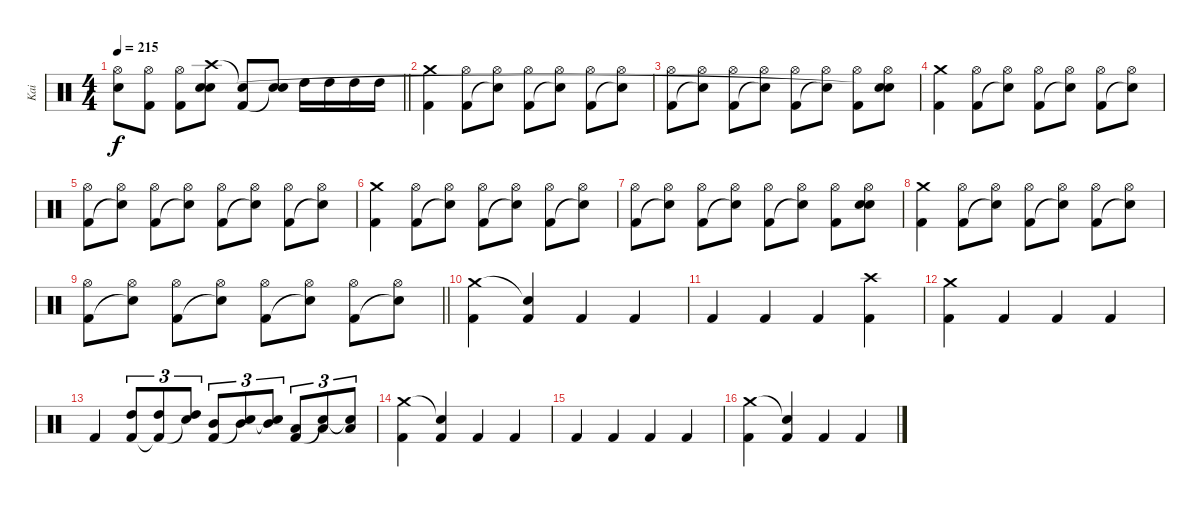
\track ("Kai" "Kai") {instrument percussion}
\staff {score}
\articulation defaults
\ts (4 4)
\tempo 215
\clef neutral
\barLineRight lightlight
\ks c
("Hi-Hat (open)" "Snare (hit) 2").8{dy f} ("Hi-Hat (open)" "Kick (hit) 2").8 ("Hi-Hat (open)" "Kick (hit) 2").8 ("Crash high (hit)" "Snare (hit) 2" "Snare (hit)"{t}).8 ("Snare (hit)"{t} "Kick (hit) 2").8 ("Snare (hit) 2" "Snare (hit)"{t}).8 "High Tom (hit)".16 "High Tom (hit)".16 "High Tom (hit)".16 "High Tom (hit)".16 |
("Crash medium (hit)" "Kick (hit) 2").4 ("Hi-Hat (open)" "Kick (hit) 2").8 ("Hi-Hat (open)" "Snare (hit)"{t}).8 ("Hi-Hat (open)" "Kick (hit) 2").8 ("Hi-Hat (open)" "Snare (hit)"{t}).8 ("Hi-Hat (open)" "Kick (hit) 2").8 ("Hi-Hat (open)" "Snare (hit)"{t}).8 |
("Hi-Hat (open)" "Kick (hit) 2").8 ("Hi-Hat (open)" "Snare (hit)"{t}).8 ("Hi-Hat (open)" "Kick (hit) 2").8 ("Hi-Hat (open)" "Snare (hit)"{t}).8 ("Hi-Hat (open)" "Kick (hit) 2").8 ("Hi-Hat (open)" "Snare (hit)"{t}).8 ("Hi-Hat (open)" "Kick (hit) 2").8 ("Hi-Hat (open)" "Snare (hit) 2" "Snare (hit)"{t}).8 |
("Crash medium (hit)" "Kick (hit) 2").4 ("Hi-Hat (open)" "Kick (hit) 2").8 ("Hi-Hat (open)" "Snare (hit)"{t}).8 ("Hi-Hat (open)" "Kick (hit) 2").8 ("Hi-Hat (open)" "Snare (hit)"{t}).8 ("Hi-Hat (open)" "Kick (hit) 2").8 ("Hi-Hat (open)" "Snare (hit)"{t}).8 |
("Hi-Hat (open)" "Kick (hit) 2").8 ("Hi-Hat (open)" "Snare (hit)"{t}).8 ("Hi-Hat (open)" "Kick (hit) 2").8 ("Hi-Hat (open)" "Snare (hit)"{t}).8 ("Hi-Hat (open)" "Kick (hit) 2").8 ("Hi-Hat (open)" "Snare (hit)"{t}).8 ("Hi-Hat (open)" "Kick (hit) 2").8 ("Hi-Hat (open)" "Snare (hit)"{t}).8 |
("Crash medium (hit)" "Kick (hit) 2").4 ("Hi-Hat (open)" "Kick (hit) 2").8 ("Hi-Hat (open)" "Snare (hit)"{t}).8 ("Hi-Hat (open)" "Kick (hit) 2").8 ("Hi-Hat (open)" "Snare (hit)"{t}).8 ("Hi-Hat (open)" "Kick (hit) 2").8 ("Hi-Hat (open)" "Snare (hit)"{t}).8 |
("Hi-Hat (open)" "Kick (hit) 2").8 ("Hi-Hat (open)" "Snare (hit)"{t}).8 ("Hi-Hat (open)" "Kick (hit) 2").8 ("Hi-Hat (open)" "Snare (hit)"{t}).8 ("Hi-Hat (open)" "Kick (hit) 2").8 ("Hi-Hat (open)" "Snare (hit)"{t}).8 ("Hi-Hat (open)" "Kick (hit) 2").8 ("Hi-Hat (open)" "Snare (hit) 2" "Snare (hit)").8 |
("Crash medium (hit)" "Kick (hit) 2").4 ("Hi-Hat (open)" "Kick (hit) 2").8 ("Hi-Hat (open)" "Snare (hit)"{t}).8 ("Hi-Hat (open)" "Kick (hit) 2").8 ("Hi-Hat (open)" "Snare (hit)"{t}).8 ("Hi-Hat (open)" "Kick (hit) 2").8 ("Hi-Hat (open)" "Snare (hit)"{t}).8 |
\barLineRight lightlight
("Hi-Hat (open)" "Kick (hit) 2").8 ("Hi-Hat (open)" "Snare (hit)"{t}).8 ("Hi-Hat (open)" "Kick (hit) 2").8 ("Hi-Hat (open)" "Snare (hit)"{t}).8 ("Hi-Hat (open)" "Kick (hit) 2").8 ("Hi-Hat (open)" "Snare (hit)"{t}).8 ("Hi-Hat (open)" "Kick (hit) 2").8 ("Hi-Hat (open)" "Snare (hit)"{t}).8 |
("Crash medium (hit)" "Kick (hit) 2").4 ("Snare (hit)"{t} "Kick (hit) 2").4 "Kick (hit) 2".4 "Kick (hit) 2".4 |
"Kick (hit) 2".4 "Kick (hit) 2".4 "Kick (hit) 2".4 ("Crash high (hit)" "Kick (hit) 2").4 |
("Crash medium (hit)" "Kick (hit) 2").4 "Kick (hit) 2".4 "Kick (hit) 2".4 "Kick (hit) 2".4 |
"Kick (hit) 2".4 ("High Tom (hit)" "Kick (hit) 2").8{tu (3 2)} ("High Tom (hit)" "Kick (hit) 2"{t}).8{tu (3 2)} ("High Tom (hit)" "Snare (hit)"{t}).8{tu (3 2)} ("Mid Tom (hit)" "Kick (hit) 2").8{tu (3 2)} ("Mid Tom (hit)" "Snare (hit)"{t}).8{tu (3 2)} ("Mid Tom (hit)" "Snare (hit)"{t}).8{tu (3 2)} ("Low Tom (hit)" "Kick (hit) 2").8{tu (3 2)} ("Low Tom (hit)" "Snare (hit)"{t}).8{tu (3 2)} ("Low Tom (hit)" "Snare (hit)"{t}).8{tu (3 2)} |
("Crash medium (hit)" "Kick (hit) 2").4 ("Snare (hit)"{t} "Kick (hit) 2").4 "Kick (hit) 2".4 "Kick (hit) 2".4 |
"Kick (hit) 2".4 "Kick (hit) 2".4 "Kick (hit) 2".4 "Kick (hit) 2".4 |
("Crash medium (hit)" "Kick (hit) 2").4 ("Snare (hit)"{t} "Kick (hit) 2").4 "Kick (hit) 2".4 "Kick (hit) 2".4
